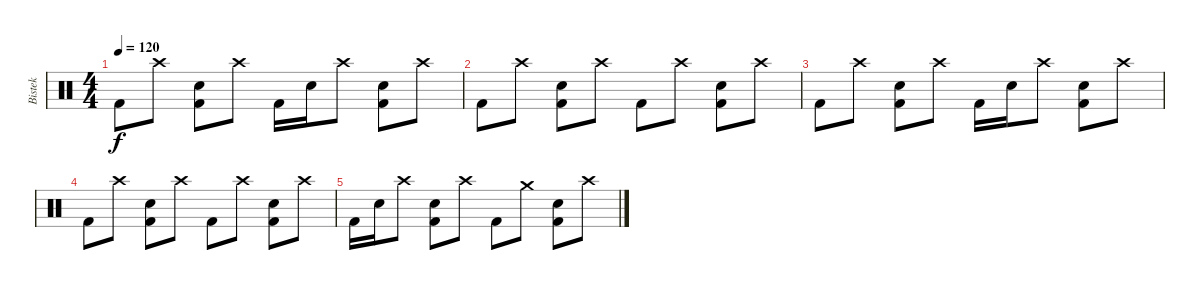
\track ("Bistek" "Bistek") {instrument percussion}
\staff {score}
\articulation defaults
\ts (4 4)
\tempo 120
\clef neutral
\ks c "Kick (hit) 2".8{dy f} "Crash high (hit)".8
("Snare (hit) 2" "Kick (hit) 2").8 "Crash high (hit)".8 "Kick (hit) 2".16 "Snare (hit) 2".16 "Crash high (hit)".8 ("Snare (hit) 2" "Kick (hit) 2").8 "Crash high (hit)".8 |
"Kick (hit) 2".8 "Crash high (hit)".8 ("Snare (hit) 2" "Kick (hit) 2").8 "Crash high (hit)".8 "Kick (hit) 2".8 "Crash high (hit)".8 ("Snare (hit) 2" "Kick (hit) 2").8 "Crash high (hit)".8 |
"Kick (hit) 2".8 "Crash high (hit)".8 ("Snare (hit) 2" "Kick (hit) 2").8 "Crash high (hit)".8 "Kick (hit) 2".16 "Snare (hit) 2".16 "Crash high (hit)".8 ("Snare (hit) 2" "Kick (hit) 2").8 "Crash high (hit)".8 |
"Kick (hit) 2".8 "Crash high (hit)".8 ("Snare (hit) 2" "Kick (hit) 2").8 "Crash high (hit)".8 "Kick (hit) 2".8 "Crash high (hit)".8 ("Snare (hit) 2" "Kick (hit) 2").8 "Crash high (hit)".8 |
"Kick (hit) 2".16 "Snare (hit) 2".16 "Crash high (hit)".8 ("Snare (hit) 2" "Kick (hit) 2").8 "Crash high (hit)".8 "Kick (hit) 2".8 "Crash medium (hit)".8 ("Snare (hit) 2" "Kick (hit) 2").8 "Crash high (hit)".8
